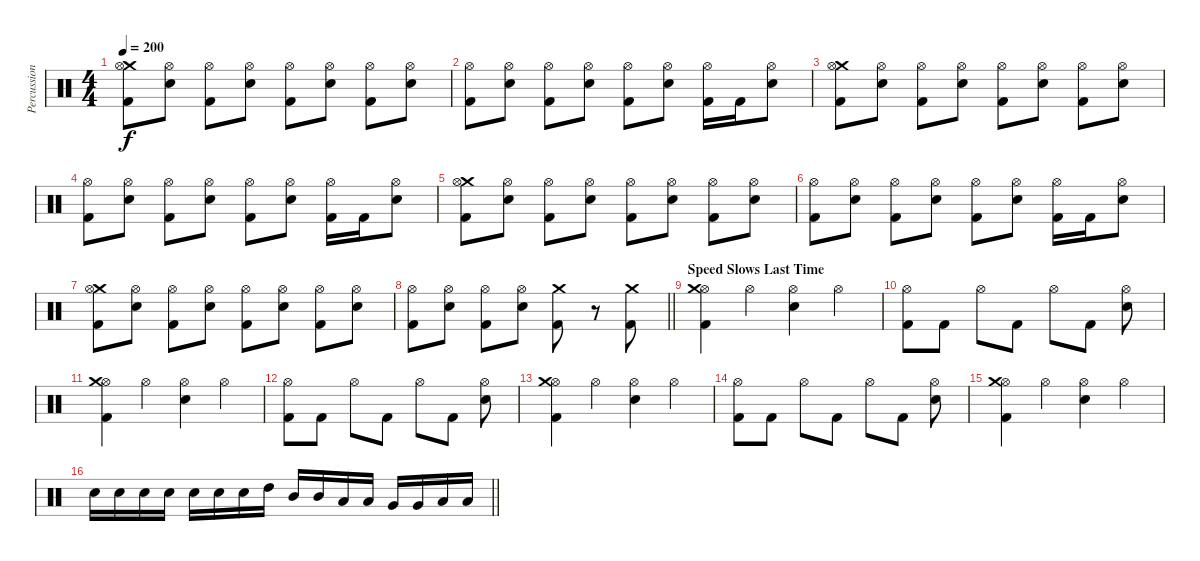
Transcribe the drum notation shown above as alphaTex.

\track ("Percussion" "Percussion") {instrument percussion}
\staff {score}
\articulation defaults
\ts (4 4)
\tempo 200
\clef neutral
\ks c
("Kick (hit) 2" "Crash medium (hit)" "Hi-Hat (open)").8{dy f} ("Electric Snare (hit)" "Hi-Hat (open)").8 ("Kick (hit) 2" "Hi-Hat (open)").8 ("Electric Snare (hit)" "Hi-Hat (open)").8 ("Kick (hit) 2" "Hi-Hat (open)").8 ("Electric Snare (hit)" "Hi-Hat (open)").8 ("Kick (hit) 2" "Hi-Hat (open)").8 ("Electric Snare (hit)" "Hi-Hat (open)").8 |
("Kick (hit) 2" "Hi-Hat (open)").8 ("Electric Snare (hit)" "Hi-Hat (open)").8 ("Kick (hit) 2" "Hi-Hat (open)").8 ("Electric Snare (hit)" "Hi-Hat (open)").8 ("Kick (hit) 2" "Hi-Hat (open)").8 ("Electric Snare (hit)" "Hi-Hat (open)").8 ("Kick (hit) 2" "Hi-Hat (open)").16 "Kick (hit) 2".16 ("Electric Snare (hit)" "Hi-Hat (open)").8 |
("Kick (hit) 2" "Crash medium (hit)" "Hi-Hat (open)").8 ("Electric Snare (hit)" "Hi-Hat (open)").8 ("Kick (hit) 2" "Hi-Hat (open)").8 ("Electric Snare (hit)" "Hi-Hat (open)").8 ("Kick (hit) 2" "Hi-Hat (open)").8 ("Electric Snare (hit)" "Hi-Hat (open)").8 ("Kick (hit) 2" "Hi-Hat (open)").8 ("Electric Snare (hit)" "Hi-Hat (open)").8 |
("Kick (hit) 2" "Hi-Hat (open)").8 ("Electric Snare (hit)" "Hi-Hat (open)").8 ("Kick (hit) 2" "Hi-Hat (open)").8 ("Electric Snare (hit)" "Hi-Hat (open)").8 ("Kick (hit) 2" "Hi-Hat (open)").8 ("Electric Snare (hit)" "Hi-Hat (open)").8 ("Kick (hit) 2" "Hi-Hat (open)").16 "Kick (hit) 2".16 ("Electric Snare (hit)" "Hi-Hat (open)").8 |
("Kick (hit) 2" "Crash medium (hit)" "Hi-Hat (open)").8 ("Electric Snare (hit)" "Hi-Hat (open)").8 ("Kick (hit) 2" "Hi-Hat (open)").8 ("Electric Snare (hit)" "Hi-Hat (open)").8 ("Kick (hit) 2" "Hi-Hat (open)").8 ("Electric Snare (hit)" "Hi-Hat (open)").8 ("Kick (hit) 2" "Hi-Hat (open)").8 ("Electric Snare (hit)" "Hi-Hat (open)").8 |
("Kick (hit) 2" "Hi-Hat (open)").8 ("Electric Snare (hit)" "Hi-Hat (open)").8 ("Kick (hit) 2" "Hi-Hat (open)").8 ("Electric Snare (hit)" "Hi-Hat (open)").8 ("Kick (hit) 2" "Hi-Hat (open)").8 ("Electric Snare (hit)" "Hi-Hat (open)").8 ("Kick (hit) 2" "Hi-Hat (open)").16 "Kick (hit) 2".16 ("Electric Snare (hit)" "Hi-Hat (open)").8 |
("Kick (hit) 2" "Crash medium (hit)" "Hi-Hat (open)").8 ("Electric Snare (hit)" "Hi-Hat (open)").8 ("Kick (hit) 2" "Hi-Hat (open)").8 ("Electric Snare (hit)" "Hi-Hat (open)").8 ("Kick (hit) 2" "Hi-Hat (open)").8 ("Electric Snare (hit)" "Hi-Hat (open)").8 ("Kick (hit) 2" "Hi-Hat (open)").8 ("Electric Snare (hit)" "Hi-Hat (open)").8 |
\barLineRight lightlight
("Kick (hit) 2" "Hi-Hat (open)").8 ("Electric Snare (hit)" "Hi-Hat (open)").8 ("Kick (hit) 2" "Hi-Hat (open)").8 ("Electric Snare (hit)" "Hi-Hat (open)").8 ("Kick (hit) 2" "Crash medium (hit)").8 r.8 ("Kick (hit) 2" "Crash medium (hit)").8 |
\section ("" "Speed Slows Last Time")
("Kick (hit) 2" "Hi-Hat (open)" "Crash medium (hit)").4 "Hi-Hat (open)".4 ("Electric Snare (hit)" "Hi-Hat (open)").4 "Hi-Hat (open)".4 |
("Kick (hit) 2" "Hi-Hat (open)").8 "Kick (hit) 2".8 "Hi-Hat (open)".8 "Kick (hit) 2".8 "Hi-Hat (open)".8 "Kick (hit) 2".8 ("Electric Snare (hit)" "Hi-Hat (open)").8 |
("Kick (hit) 2" "Hi-Hat (open)" "Crash medium (hit)").4 "Hi-Hat (open)".4 ("Electric Snare (hit)" "Hi-Hat (open)").4 "Hi-Hat (open)".4 |
("Kick (hit) 2" "Hi-Hat (open)").8 "Kick (hit) 2".8 "Hi-Hat (open)".8 "Kick (hit) 2".8 "Hi-Hat (open)".8 "Kick (hit) 2".8 ("Electric Snare (hit)" "Hi-Hat (open)").8 |
("Kick (hit) 2" "Hi-Hat (open)" "Crash medium (hit)").4 "Hi-Hat (open)".4 ("Electric Snare (hit)" "Hi-Hat (open)").4 "Hi-Hat (open)".4 |
("Kick (hit) 2" "Hi-Hat (open)").8 "Kick (hit) 2".8 "Hi-Hat (open)".8 "Kick (hit) 2".8 "Hi-Hat (open)".8 "Kick (hit) 2".8 ("Electric Snare (hit)" "Hi-Hat (open)").8 |
("Kick (hit) 2" "Hi-Hat (open)" "Crash medium (hit)").4 "Hi-Hat (open)".4 ("Electric Snare (hit)" "Hi-Hat (open)").4 "Hi-Hat (open)".4 |
\barLineRight lightlight "Electric Snare (hit)".16 "Electric Snare (hit)".16 "Electric Snare (hit)".16 "Electric Snare (hit)".16 "Electric Snare (hit)".16 "Electric Snare (hit)".16 "Electric Snare (hit)".16 "High Tom (hit)".16 "Mid Tom (hit)".16 "Mid Tom (hit)".16 "Low Tom (hit)".16 "Low Tom (hit)".16 "Very Low Tom (hit)".16 "Very Low Tom (hit)".16 "Low Floor Tom (hit)".16 "Low Floor Tom (hit)".16
